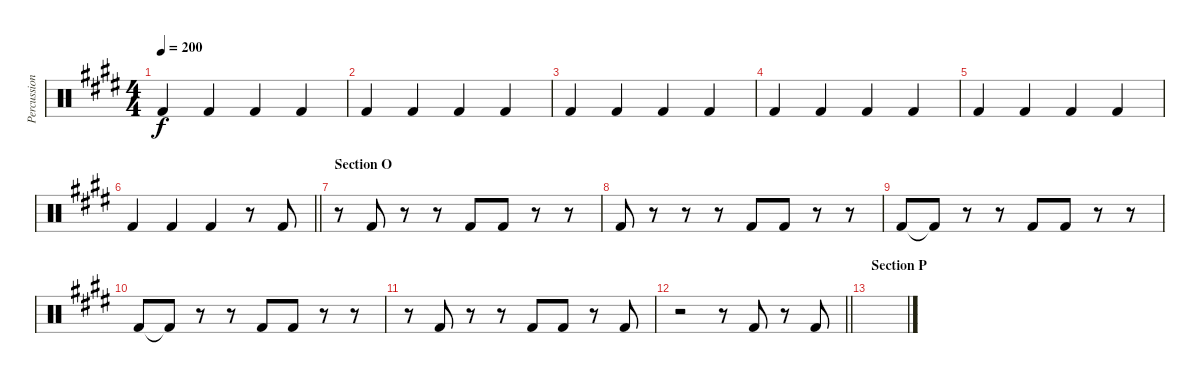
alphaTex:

\track ("Percussion - bass drum" "Percussion") {instrument percussion}
\staff {score}
\articulation defaults
\ts (4 4)
\tempo 200
\clef neutral
\ks e "Kick (hit) 2".4{dy f} "Kick (hit) 2".4 "Kick (hit) 2".4 "Kick (hit) 2".4
|
"Kick (hit) 2".4 "Kick (hit) 2".4 "Kick (hit) 2".4 "Kick (hit) 2".4 |
"Kick (hit) 2".4 "Kick (hit) 2".4 "Kick (hit) 2".4 "Kick (hit) 2".4 |
"Kick (hit) 2".4 "Kick (hit) 2".4 "Kick (hit) 2".4 "Kick (hit) 2".4 |
"Kick (hit) 2".4 "Kick (hit) 2".4 "Kick (hit) 2".4 "Kick (hit) 2".4 |
\barLineRight lightlight "Kick (hit) 2".4 "Kick (hit) 2".4 "Kick (hit) 2".4
r.8 "Kick (hit) 2".8 |
\section ("" "Section O")
r.8 "Kick (hit) 2".8 r.8 r.8 "Kick (hit) 2".8 "Kick (hit) 2".8 r.8 r.8 |
"Kick (hit) 2".8 r.8 r.8 r.8 "Kick (hit) 2".8 "Kick (hit) 2".8 r.8 r.8 |
"Kick (hit) 2".8 "Kick (hit) 2"{t}.8 r.8 r.8 "Kick (hit) 2".8 "Kick (hit) 2".8 r.8 r.8 |
"Kick (hit) 2".8 "Kick (hit) 2"{t}.8 r.8 r.8 "Kick (hit) 2".8 "Kick (hit) 2".8 r.8 r.8 |
r.8 "Kick (hit) 2".8 r.8 r.8 "Kick (hit) 2".8 "Kick (hit) 2".8 r.8 "Kick (hit) 2".8 |
\barLineRight lightlight
r.2 r.8 "Kick (hit) 2".8 r.8 "Kick (hit) 2".8 |
\section ("" "Section P")
